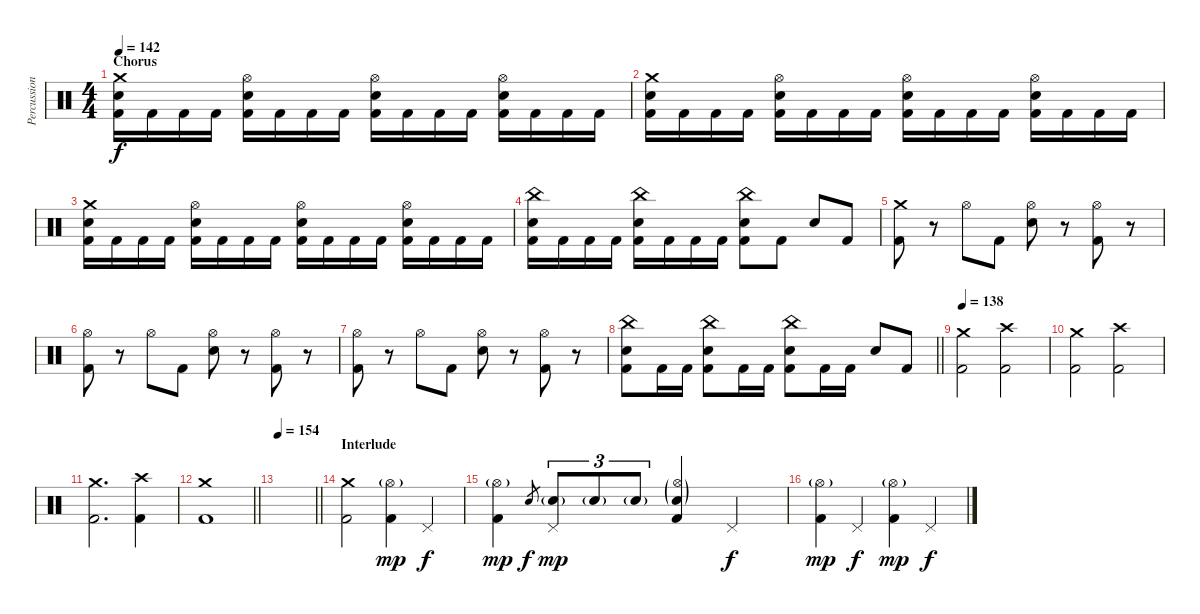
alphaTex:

\track ("Percussion" "Percussion") {instrument percussion}
\staff {score}
\articulation defaults
\ts (4 4)
\section ("" "Chorus")
\tempo 142
\clef neutral
\ks c
("Crash medium (hit)" "Snare (hit) 2" "Kick (hit) 2").16{dy f} "Kick (hit) 2".16 "Kick (hit) 2".16 "Kick (hit) 2".16 ("Hi-Hat (open)" "Snare (hit) 2" "Kick (hit) 2").16 "Kick (hit) 2".16 "Kick (hit) 2".16 "Kick (hit) 2".16 ("Hi-Hat (open)" "Snare (hit) 2" "Kick (hit) 2").16 "Kick (hit) 2".16 "Kick (hit) 2".16 "Kick (hit) 2".16 ("Hi-Hat (open)" "Snare (hit) 2" "Kick (hit) 2").16 "Kick (hit) 2".16 "Kick (hit) 2".16 "Kick (hit) 2".16 |
("Crash medium (hit)" "Snare (hit) 2" "Kick (hit) 2").16 "Kick (hit) 2".16 "Kick (hit) 2".16 "Kick (hit) 2".16 ("Hi-Hat (open)" "Snare (hit) 2" "Kick (hit) 2").16 "Kick (hit) 2".16 "Kick (hit) 2".16 "Kick (hit) 2".16 ("Hi-Hat (open)" "Snare (hit) 2" "Kick (hit) 2").16 "Kick (hit) 2".16 "Kick (hit) 2".16 "Kick (hit) 2".16 ("Hi-Hat (open)" "Snare (hit) 2" "Kick (hit) 2").16 "Kick (hit) 2".16 "Kick (hit) 2".16 "Kick (hit) 2".16 |
("Crash medium (hit)" "Snare (hit) 2" "Kick (hit) 2").16 "Kick (hit) 2".16 "Kick (hit) 2".16 "Kick (hit) 2".16 ("Hi-Hat (open)" "Snare (hit) 2" "Kick (hit) 2").16 "Kick (hit) 2".16 "Kick (hit) 2".16 "Kick (hit) 2".16 ("Hi-Hat (open)" "Snare (hit) 2" "Kick (hit) 2").16 "Kick (hit) 2".16 "Kick (hit) 2".16 "Kick (hit) 2".16 ("Hi-Hat (open)" "Snare (hit) 2" "Kick (hit) 2").16 "Kick (hit) 2".16 "Kick (hit) 2".16 "Kick (hit) 2".16 |
("China (hit)" "Snare (hit) 2" "Kick (hit) 2").16 "Kick (hit) 2".16 "Kick (hit) 2".16 "Kick (hit) 2".16 ("China (hit)" "Snare (hit) 2" "Kick (hit) 2").16 "Kick (hit) 2".16 "Kick (hit) 2".16 "Kick (hit) 2".16 ("China (hit)" "Snare (hit) 2" "Kick (hit) 2").8 "Kick (hit) 2".8 "Snare (hit) 2".8 "Kick (hit) 2".8 |
("Crash medium (hit)" "Kick (hit) 2").8 r.8 "Hi-Hat (open)".8 "Kick (hit) 2".8 ("Hi-Hat (open)" "Snare (hit) 2").8 r.8 ("Hi-Hat (open)" "Kick (hit) 2").8 r.8 |
("Hi-Hat (open)" "Kick (hit) 2").8 r.8 "Hi-Hat (open)".8 "Kick (hit) 2".8 ("Hi-Hat (open)" "Snare (hit) 2").8 r.8 ("Hi-Hat (open)" "Kick (hit) 2").8 r.8 |
("Hi-Hat (open)" "Kick (hit) 2").8 r.8 "Hi-Hat (open)".8 "Kick (hit) 2".8 ("Hi-Hat (open)" "Snare (hit) 2").8 r.8 ("Hi-Hat (open)" "Kick (hit) 2").8 r.8 |
\barLineRight lightlight
("China (hit)" "Snare (hit) 2" "Kick (hit) 2").8 "Kick (hit) 2".16 "Kick (hit) 2".16 ("China (hit)" "Snare (hit) 2" "Kick (hit) 2").8 "Kick (hit) 2".16 "Kick (hit) 2".16 ("China (hit)" "Snare (hit) 2" "Kick (hit) 2").8 "Kick (hit) 2".16 "Kick (hit) 2".16 "Snare (hit) 2".8 "Kick (hit) 2".8 |
\section ("" "")
\tempo 138
("Crash medium (hit)" "Kick (hit) 2").2 ("Crash high (hit)" "Kick (hit) 2").2 |
("Crash medium (hit)" "Kick (hit) 2").2 ("Crash high (hit)" "Kick (hit) 2").2 |
("Crash medium (hit)" "Kick (hit) 2").2{d} ("Crash high (hit)" "Kick (hit) 2").4 |
\barLineRight lightlight
("Crash medium (hit)" "Kick (hit) 2").1 |
\tempo 154
\barLineRight lightlight
|
\section ("" "Interlude")
("Crash medium (hit)" "Kick (hit) 2").2 ("Hi-Hat (open)"{g} "Kick (hit) 2").4{dy mp} "Pedal Hi-Hat (hit)".4{dy f} |
("Hi-Hat (open)"{g} "Kick (hit) 2").4{dy mp} "Electric Snare (hit)".8{gr dy f} ("Pedal Hi-Hat (hit)" "Electric Snare (hit)"{g}).8{tu (3 2) dy mp} "Electric Snare (hit)"{g}.8{tu (3 2)} "Electric Snare (hit)"{g}.8{tu (3 2)} ("Hi-Hat (open)"{g} "Electric Snare (hit)"{g} "Kick (hit) 2").4 "Pedal Hi-Hat (hit)".4{dy f} |
("Hi-Hat (open)"{g} "Kick (hit) 2").4{dy mp} "Pedal Hi-Hat (hit)".4{dy f} ("Hi-Hat (open)"{g} "Kick (hit) 2").4{dy mp} "Pedal Hi-Hat (hit)".4{dy f}
